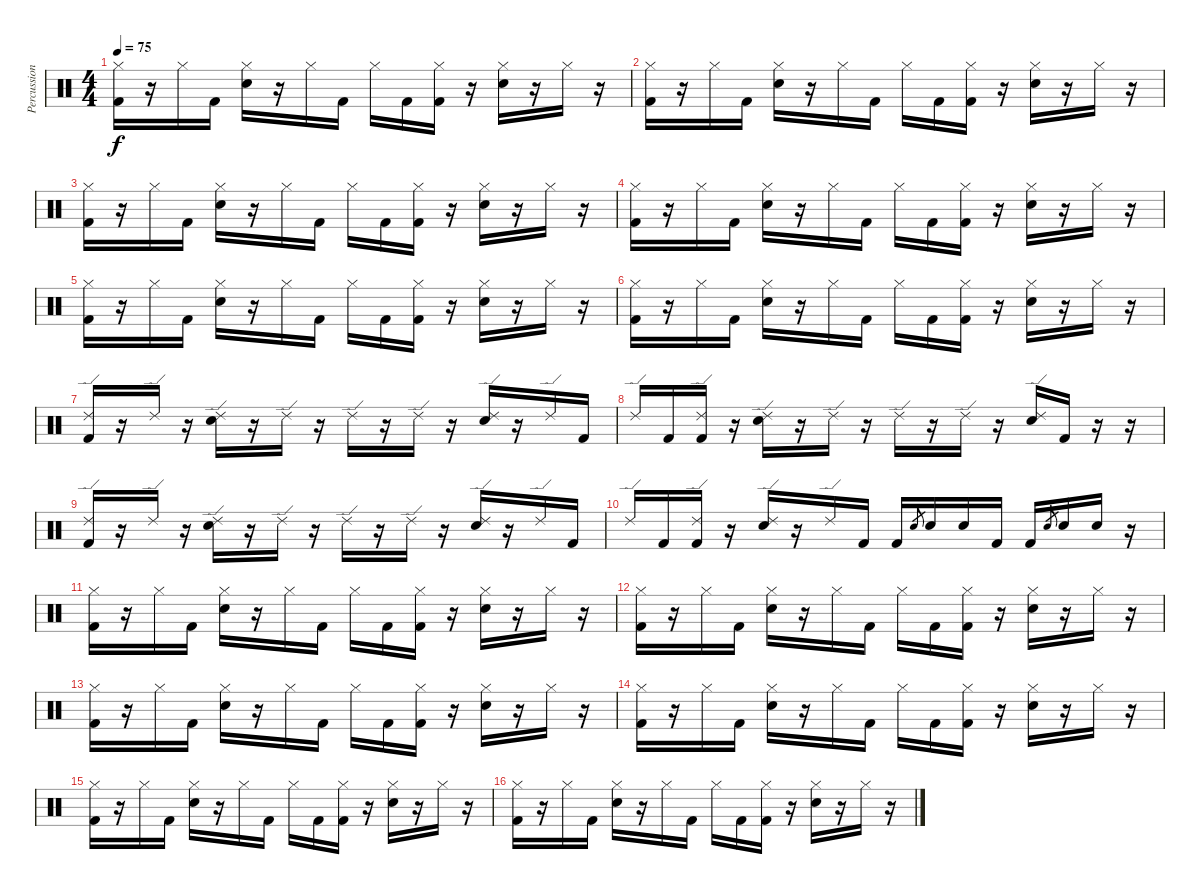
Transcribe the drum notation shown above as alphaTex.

\track ("Percussion" "Percussion") {instrument percussion}
\staff {score}
\articulation defaults
\ts (4 4)
\tempo 75
\clef neutral
\ks c
("Hi-Hat (closed)" "Kick (hit) 2").16{dy f} r.16 "Hi-Hat (closed)".16 "Kick (hit) 2".16 ("Hi-Hat (closed)" "Snare (hit) 2").16 r.16 "Hi-Hat (closed)".16 "Kick (hit) 2".16 "Hi-Hat (closed)".16 "Kick (hit) 2".16 ("Hi-Hat (closed)" "Kick (hit) 2").16 r.16 ("Hi-Hat (closed)" "Snare (hit) 2").16 r.16 "Hi-Hat (closed)".16 r.16 |
("Hi-Hat (closed)" "Kick (hit) 2").16 r.16 "Hi-Hat (closed)".16 "Kick (hit) 2".16 ("Hi-Hat (closed)" "Snare (hit) 2").16 r.16 "Hi-Hat (closed)".16 "Kick (hit) 2".16 "Hi-Hat (closed)".16 "Kick (hit) 2".16 ("Hi-Hat (closed)" "Kick (hit) 2").16 r.16 ("Hi-Hat (closed)" "Snare (hit) 2").16 r.16 "Hi-Hat (closed)".16 r.16 |
("Hi-Hat (closed)" "Kick (hit) 2").16 r.16 "Hi-Hat (closed)".16 "Kick (hit) 2".16 ("Hi-Hat (closed)" "Snare (hit) 2").16 r.16 "Hi-Hat (closed)".16 "Kick (hit) 2".16 "Hi-Hat (closed)".16 "Kick (hit) 2".16 ("Hi-Hat (closed)" "Kick (hit) 2").16 r.16 ("Hi-Hat (closed)" "Snare (hit) 2").16 r.16 "Hi-Hat (closed)".16 r.16 |
("Hi-Hat (closed)" "Kick (hit) 2").16 r.16 "Hi-Hat (closed)".16 "Kick (hit) 2".16 ("Hi-Hat (closed)" "Snare (hit) 2").16 r.16 "Hi-Hat (closed)".16 "Kick (hit) 2".16 "Hi-Hat (closed)".16 "Kick (hit) 2".16 ("Hi-Hat (closed)" "Kick (hit) 2").16 r.16 ("Hi-Hat (closed)" "Snare (hit) 2").16 r.16 "Hi-Hat (closed)".16 r.16 |
("Hi-Hat (closed)" "Kick (hit) 2").16 r.16 "Hi-Hat (closed)".16 "Kick (hit) 2".16 ("Hi-Hat (closed)" "Snare (hit) 2").16 r.16 "Hi-Hat (closed)".16 "Kick (hit) 2".16 "Hi-Hat (closed)".16 "Kick (hit) 2".16 ("Hi-Hat (closed)" "Kick (hit) 2").16 r.16 ("Hi-Hat (closed)" "Snare (hit) 2").16 r.16 "Hi-Hat (closed)".16 r.16 |
("Hi-Hat (closed)" "Kick (hit) 2").16 r.16 "Hi-Hat (closed)".16 "Kick (hit) 2".16 ("Hi-Hat (closed)" "Snare (hit) 2").16 r.16 "Hi-Hat (closed)".16 "Kick (hit) 2".16 "Hi-Hat (closed)".16 "Kick (hit) 2".16 ("Hi-Hat (closed)" "Kick (hit) 2").16 r.16 ("Hi-Hat (closed)" "Snare (hit) 2").16 r.16 "Hi-Hat (closed)".16 r.16 |
("Ride (edge) 2" "Kick (hit) 2").16 r.16 "Ride (edge) 2".16 r.16 ("Ride (edge) 2" "Snare (hit) 2").16 r.16 "Ride (edge) 2".16 r.16 "Ride (edge) 2".16 r.16 "Ride (edge) 2".16 r.16 ("Ride (edge) 2" "Snare (hit) 2").16 r.16 "Ride (edge) 2".16 "Kick (hit) 2".16 |
"Ride (edge) 2".16 "Kick (hit) 2".16 ("Ride (edge) 2" "Kick (hit) 2").16 r.16 ("Ride (edge) 2" "Snare (hit) 2").16 r.16 "Ride (edge) 2".16 r.16 "Ride (edge) 2".16 r.16 "Ride (edge) 2".16 r.16 ("Ride (edge) 2" "Snare (hit) 2").16 "Kick (hit) 2".16 r.16 r.16 |
("Ride (edge) 2" "Kick (hit) 2").16 r.16 "Ride (edge) 2".16 r.16 ("Ride (edge) 2" "Snare (hit) 2").16 r.16 "Ride (edge) 2".16 r.16 "Ride (edge) 2".16 r.16 "Ride (edge) 2".16 r.16 ("Ride (edge) 2" "Snare (hit) 2").16 r.16 "Ride (edge) 2".16 "Kick (hit) 2".16 |
"Ride (edge) 2".16 "Kick (hit) 2".16 ("Ride (edge) 2" "Kick (hit) 2").16 r.16 ("Ride (edge) 2" "Snare (hit) 2").16 r.16 "Ride (edge) 2".16 "Kick (hit) 2".16 "Kick (hit) 2".16 "Snare (hit) 2".8{gr} "Snare (hit) 2".16 "Snare (hit) 2".16 "Kick (hit) 2".16 "Kick (hit) 2".16 "Snare (hit) 2".8{gr} "Snare (hit) 2".16 "Snare (hit) 2".16 r.16 |
("Hi-Hat (closed)" "Kick (hit) 2").16 r.16 "Hi-Hat (closed)".16 "Kick (hit) 2".16 ("Hi-Hat (closed)" "Snare (hit) 2").16 r.16 "Hi-Hat (closed)".16 "Kick (hit) 2".16 "Hi-Hat (closed)".16 "Kick (hit) 2".16 ("Hi-Hat (closed)" "Kick (hit) 2").16 r.16 ("Hi-Hat (closed)" "Snare (hit) 2").16 r.16 "Hi-Hat (closed)".16 r.16 |
("Hi-Hat (closed)" "Kick (hit) 2").16 r.16 "Hi-Hat (closed)".16 "Kick (hit) 2".16 ("Hi-Hat (closed)" "Snare (hit) 2").16 r.16 "Hi-Hat (closed)".16 "Kick (hit) 2".16 "Hi-Hat (closed)".16 "Kick (hit) 2".16 ("Hi-Hat (closed)" "Kick (hit) 2").16 r.16 ("Hi-Hat (closed)" "Snare (hit) 2").16 r.16 "Hi-Hat (closed)".16 r.16 |
("Hi-Hat (closed)" "Kick (hit) 2").16 r.16 "Hi-Hat (closed)".16 "Kick (hit) 2".16 ("Hi-Hat (closed)" "Snare (hit) 2").16 r.16 "Hi-Hat (closed)".16 "Kick (hit) 2".16 "Hi-Hat (closed)".16 "Kick (hit) 2".16 ("Hi-Hat (closed)" "Kick (hit) 2").16 r.16 ("Hi-Hat (closed)" "Snare (hit) 2").16 r.16 "Hi-Hat (closed)".16 r.16 |
("Hi-Hat (closed)" "Kick (hit) 2").16 r.16 "Hi-Hat (closed)".16 "Kick (hit) 2".16 ("Hi-Hat (closed)" "Snare (hit) 2").16 r.16 "Hi-Hat (closed)".16 "Kick (hit) 2".16 "Hi-Hat (closed)".16 "Kick (hit) 2".16 ("Hi-Hat (closed)" "Kick (hit) 2").16 r.16 ("Hi-Hat (closed)" "Snare (hit) 2").16 r.16 "Hi-Hat (closed)".16 r.16 |
("Hi-Hat (closed)" "Kick (hit) 2").16 r.16 "Hi-Hat (closed)".16 "Kick (hit) 2".16 ("Hi-Hat (closed)" "Snare (hit) 2").16 r.16 "Hi-Hat (closed)".16 "Kick (hit) 2".16 "Hi-Hat (closed)".16 "Kick (hit) 2".16 ("Hi-Hat (closed)" "Kick (hit) 2").16 r.16 ("Hi-Hat (closed)" "Snare (hit) 2").16 r.16 "Hi-Hat (closed)".16 r.16 |
("Hi-Hat (closed)" "Kick (hit) 2").16 r.16 "Hi-Hat (closed)".16 "Kick (hit) 2".16 ("Hi-Hat (closed)" "Snare (hit) 2").16 r.16 "Hi-Hat (closed)".16 "Kick (hit) 2".16 "Hi-Hat (closed)".16 "Kick (hit) 2".16 ("Hi-Hat (closed)" "Kick (hit) 2").16 r.16 ("Hi-Hat (closed)" "Snare (hit) 2").16 r.16 "Hi-Hat (closed)".16 r.16
